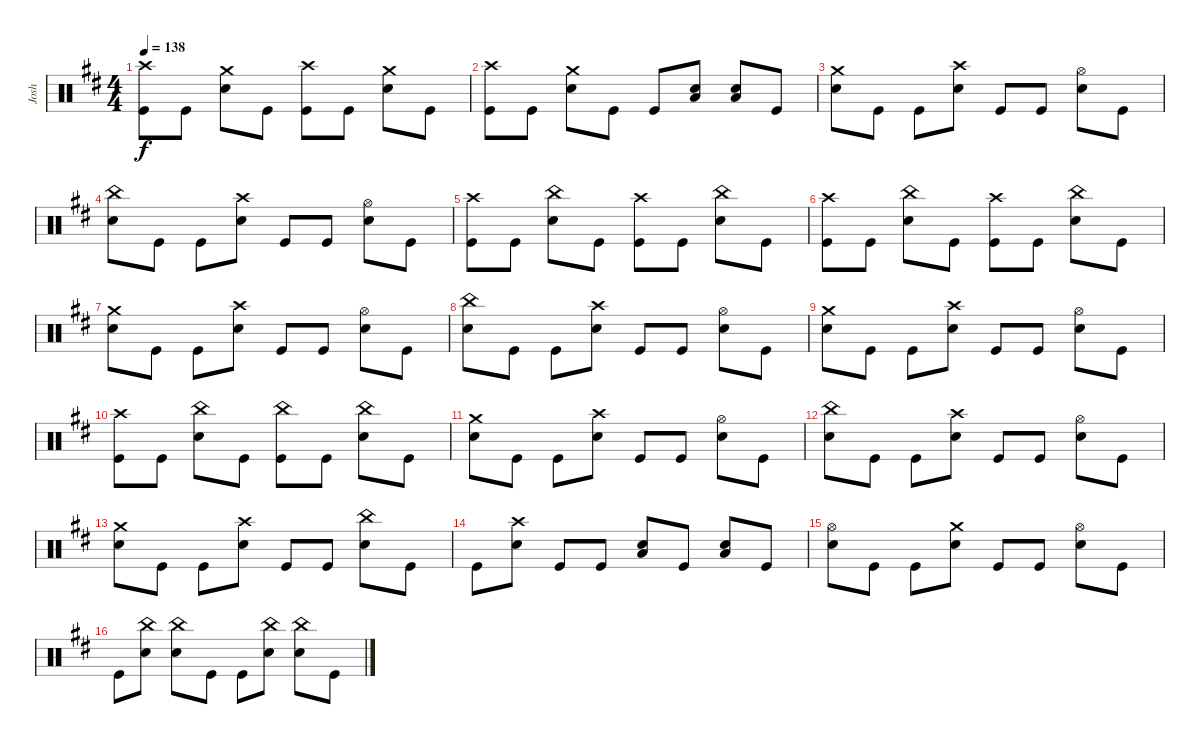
\track ("Josh" "Josh") {instrument percussion}
\staff {score}
\articulation defaults
\ts (4 4)
\tempo 138
\clef neutral
\ks d
("Kick (hit)" "Crash high (hit)").8{dy f} "Kick (hit)".8 ("Snare (hit) 2" "Crash medium (hit)").8 "Kick (hit)".8 ("Kick (hit)" "Crash high (hit)").8 "Kick (hit)".8 ("Snare (hit) 2" "Crash medium (hit)").8 "Kick (hit)".8 |
("Kick (hit)" "Crash high (hit)").8 "Kick (hit)".8 ("Snare (hit) 2" "Crash medium (hit)").8 "Kick (hit)".8 "Kick (hit)".8 ("Snare (hit) 2" "Low Floor Tom (hit)").8 ("Snare (hit) 2" "Low Floor Tom (hit)").8 "Kick (hit)".8 |
("Snare (hit) 2" "Crash medium (hit)").8 "Kick (hit)".8 "Kick (hit)".8 ("Snare (hit) 2" "Crash high (hit)").8 "Kick (hit)".8 "Kick (hit)".8 ("Snare (hit) 2" "Hi-Hat (open)").8 "Kick (hit)".8 |
("Snare (hit) 2" "China (hit)").8 "Kick (hit)".8 "Kick (hit)".8 ("Snare (hit) 2" "Crash high (hit)").8 "Kick (hit)".8 "Kick (hit)".8 ("Snare (hit) 2" "Hi-Hat (open)").8 "Kick (hit)".8 |
("Kick (hit)" "Crash high (hit)").8 "Kick (hit)".8 ("Snare (hit) 2" "China (hit)").8 "Kick (hit)".8 ("Kick (hit)" "Crash high (hit)").8 "Kick (hit)".8 ("Snare (hit) 2" "China (hit)").8 "Kick (hit)".8 |
("Kick (hit)" "Crash high (hit)").8 "Kick (hit)".8 ("Snare (hit) 2" "China (hit)").8 "Kick (hit)".8 ("Kick (hit)" "Crash high (hit)").8 "Kick (hit)".8 ("Snare (hit) 2" "China (hit)").8 "Kick (hit)".8 |
("Snare (hit) 2" "Crash medium (hit)").8 "Kick (hit)".8 "Kick (hit)".8 ("Snare (hit) 2" "Crash high (hit)").8 "Kick (hit)".8 "Kick (hit)".8 ("Snare (hit) 2" "Hi-Hat (open)").8 "Kick (hit)".8 |
("Snare (hit) 2" "China (hit)").8 "Kick (hit)".8 "Kick (hit)".8 ("Snare (hit) 2" "Crash high (hit)").8 "Kick (hit)".8 "Kick (hit)".8 ("Snare (hit) 2" "Hi-Hat (open)").8 "Kick (hit)".8 |
("Snare (hit) 2" "Crash medium (hit)").8 "Kick (hit)".8 "Kick (hit)".8 ("Snare (hit) 2" "Crash high (hit)").8 "Kick (hit)".8 "Kick (hit)".8 ("Snare (hit) 2" "Hi-Hat (open)").8 "Kick (hit)".8 |
("Kick (hit)" "Crash high (hit)").8 "Kick (hit)".8 ("Snare (hit) 2" "China (hit)").8 "Kick (hit)".8 ("Kick (hit)" "China (hit)").8 "Kick (hit)".8 ("Snare (hit) 2" "China (hit)").8 "Kick (hit)".8 |
("Snare (hit) 2" "Crash medium (hit)").8 "Kick (hit)".8 "Kick (hit)".8 ("Snare (hit) 2" "Crash high (hit)").8 "Kick (hit)".8 "Kick (hit)".8 ("Snare (hit) 2" "Hi-Hat (open)").8 "Kick (hit)".8 |
("Snare (hit) 2" "China (hit)").8 "Kick (hit)".8 "Kick (hit)".8 ("Snare (hit) 2" "Crash high (hit)").8 "Kick (hit)".8 "Kick (hit)".8 ("Snare (hit) 2" "Hi-Hat (open)").8 "Kick (hit)".8 |
("Snare (hit) 2" "Crash medium (hit)").8 "Kick (hit)".8 "Kick (hit)".8 ("Snare (hit) 2" "Crash high (hit)").8 "Kick (hit)".8 "Kick (hit)".8 ("Snare (hit) 2" "China (hit)").8 "Kick (hit)".8 |
"Kick (hit)".8 ("Snare (hit) 2" "Crash high (hit)").8 "Kick (hit)".8 "Kick (hit)".8 ("Snare (hit) 2" "Low Floor Tom (hit)").8 "Kick (hit)".8 ("Snare (hit) 2" "Low Floor Tom (hit)").8 "Kick (hit)".8 |
("Snare (hit) 2" "Hi-Hat (open)").8 "Kick (hit)".8 "Kick (hit)".8 ("Snare (hit) 2" "Crash medium (hit)").8 "Kick (hit)".8 "Kick (hit)".8 ("Snare (hit) 2" "Hi-Hat (open)").8 "Kick (hit)".8 |
"Kick (hit)".8 ("Snare (hit) 2" "China (hit)").8 ("Snare (hit) 2" "China (hit)").8 "Kick (hit)".8 "Kick (hit)".8 ("Snare (hit) 2" "China (hit)").8 ("Snare (hit) 2" "China (hit)").8 "Kick (hit)".8
